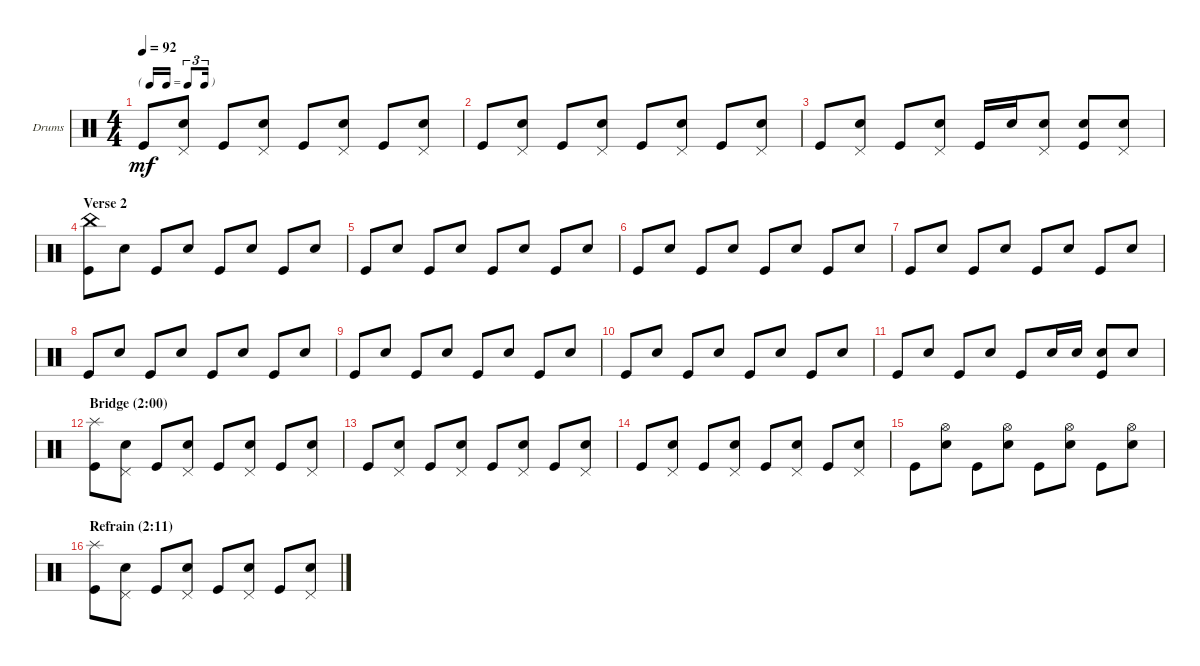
\defaultSystemsLayout 4
\bracketExtendMode nobrackets
\firstSystemTrackNameOrientation horizontal
\otherSystemsTrackNameOrientation horizontal
\track ("Drumkit" "Drums") {instrument percussion}
\staff {score}
\articulation defaults
\ts (4 4)
\tf triplet16th
\tempo 92
\clef neutral
\ks c "Kick (hit)".8{dy mf}
("Snare (hit) 2" "Pedal Hi-Hat (hit)").8 "Kick (hit)".8 ("Snare (hit) 2" "Pedal Hi-Hat (hit)").8 "Kick (hit)".8 ("Snare (hit) 2" "Pedal Hi-Hat (hit)").8 "Kick (hit)".8 ("Snare (hit) 2" "Pedal Hi-Hat (hit)").8 |
"Kick (hit)".8 ("Snare (hit) 2" "Pedal Hi-Hat (hit)").8 "Kick (hit)".8 ("Snare (hit) 2" "Pedal Hi-Hat (hit)").8 "Kick (hit)".8 ("Snare (hit) 2" "Pedal Hi-Hat (hit)").8 "Kick (hit)".8 ("Snare (hit) 2" "Pedal Hi-Hat (hit)").8 |
"Kick (hit)".8 ("Snare (hit) 2" "Pedal Hi-Hat (hit)").8 "Kick (hit)".8 ("Snare (hit) 2" "Pedal Hi-Hat (hit)").8 "Kick (hit)".16 "Snare (hit) 2".16 ("Snare (hit) 2" "Pedal Hi-Hat (hit)").8 ("Kick (hit)" "Snare (hit) 2").8 ("Snare (hit) 2" "Pedal Hi-Hat (hit)").8 |
\section ("" "Verse 2")
("China (hit)" "Kick (hit)").8 "Snare (hit) 2".8 "Kick (hit)".8 "Snare (hit) 2".8 "Kick (hit)".8 "Snare (hit) 2".8 "Kick (hit)".8 "Snare (hit) 2".8 |
"Kick (hit)".8 "Snare (hit) 2".8 "Kick (hit)".8 "Snare (hit) 2".8 "Kick (hit)".8 "Snare (hit) 2".8 "Kick (hit)".8 "Snare (hit) 2".8 |
"Kick (hit)".8 "Snare (hit) 2".8 "Kick (hit)".8 "Snare (hit) 2".8 "Kick (hit)".8 "Snare (hit) 2".8 "Kick (hit)".8 "Snare (hit) 2".8 |
"Kick (hit)".8 "Snare (hit) 2".8 "Kick (hit)".8 "Snare (hit) 2".8 "Kick (hit)".8 "Snare (hit) 2".8 "Kick (hit)".8 "Snare (hit) 2".8 |
"Kick (hit)".8 "Snare (hit) 2".8 "Kick (hit)".8 "Snare (hit) 2".8 "Kick (hit)".8 "Snare (hit) 2".8 "Kick (hit)".8 "Snare (hit) 2".8 |
"Kick (hit)".8 "Snare (hit) 2".8 "Kick (hit)".8 "Snare (hit) 2".8 "Kick (hit)".8 "Snare (hit) 2".8 "Kick (hit)".8 "Snare (hit) 2".8 |
"Kick (hit)".8 "Snare (hit) 2".8 "Kick (hit)".8 "Snare (hit) 2".8 "Kick (hit)".8 "Snare (hit) 2".8 "Kick (hit)".8 "Snare (hit) 2".8 |
"Kick (hit)".8 "Snare (hit) 2".8 "Kick (hit)".8 "Snare (hit) 2".8 "Kick (hit)".8 "Snare (hit) 2".16 "Snare (hit) 2".16 ("Kick (hit)" "Snare (hit) 2").8 "Snare (hit) 2".8 |
\section ("" "Bridge (2:00)")
("Splash (hit)" "Kick (hit)").8 ("Snare (hit) 2" "Pedal Hi-Hat (hit)").8 "Kick (hit)".8 ("Snare (hit) 2" "Pedal Hi-Hat (hit)").8 "Kick (hit)".8 ("Snare (hit) 2" "Pedal Hi-Hat (hit)").8 "Kick (hit)".8 ("Snare (hit) 2" "Pedal Hi-Hat (hit)").8 |
"Kick (hit)".8 ("Snare (hit) 2" "Pedal Hi-Hat (hit)").8 "Kick (hit)".8 ("Snare (hit) 2" "Pedal Hi-Hat (hit)").8 "Kick (hit)".8 ("Snare (hit) 2" "Pedal Hi-Hat (hit)").8 "Kick (hit)".8 ("Snare (hit) 2" "Pedal Hi-Hat (hit)").8 |
"Kick (hit)".8 ("Snare (hit) 2" "Pedal Hi-Hat (hit)").8 "Kick (hit)".8 ("Snare (hit) 2" "Pedal Hi-Hat (hit)").8 "Kick (hit)".8 ("Snare (hit) 2" "Pedal Hi-Hat (hit)").8 "Kick (hit)".8 ("Snare (hit) 2" "Pedal Hi-Hat (hit)").8 |
"Kick (hit)".8 ("Snare (hit) 2" "Hi-Hat (open)").8 "Kick (hit)".8 ("Snare (hit) 2" "Hi-Hat (open)").8 "Kick (hit)".8 ("Snare (hit) 2" "Hi-Hat (open)").8 "Kick (hit)".8 ("Snare (hit) 2" "Hi-Hat (open)").8 |
\section ("" "Refrain (2:11)")
("Splash (hit)" "Kick (hit)").8 ("Snare (hit) 2" "Pedal Hi-Hat (hit)").8 "Kick (hit)".8 ("Snare (hit) 2" "Pedal Hi-Hat (hit)").8 "Kick (hit)".8 ("Snare (hit) 2" "Pedal Hi-Hat (hit)").8 "Kick (hit)".8 ("Snare (hit) 2" "Pedal Hi-Hat (hit)").8
